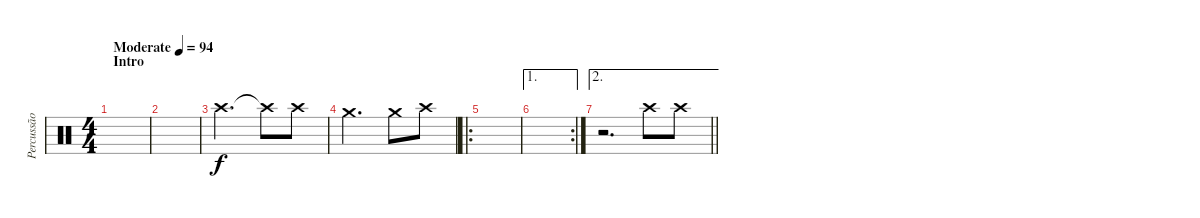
\track ("Percussão" "Percussão") {instrument percussion}
\staff {score}
\articulation defaults
\ts (4 4)
\section ("" "Intro")
\tempo (94 "Moderate")
\clef neutral
\ks c
|
|
"Crash high (hit)".2{d} "Crash high (hit)"{t}.8 "Crash high (hit)".8 |
"Crash medium (hit)".2{d} "Crash medium (hit)".8 "Crash high (hit)".8 |
\ro
|
\ae 1
\rc 2
|
\ae 2
\barLineRight lightlight
r.2{d} "Crash high (hit)".8 "Crash high (hit)".8
